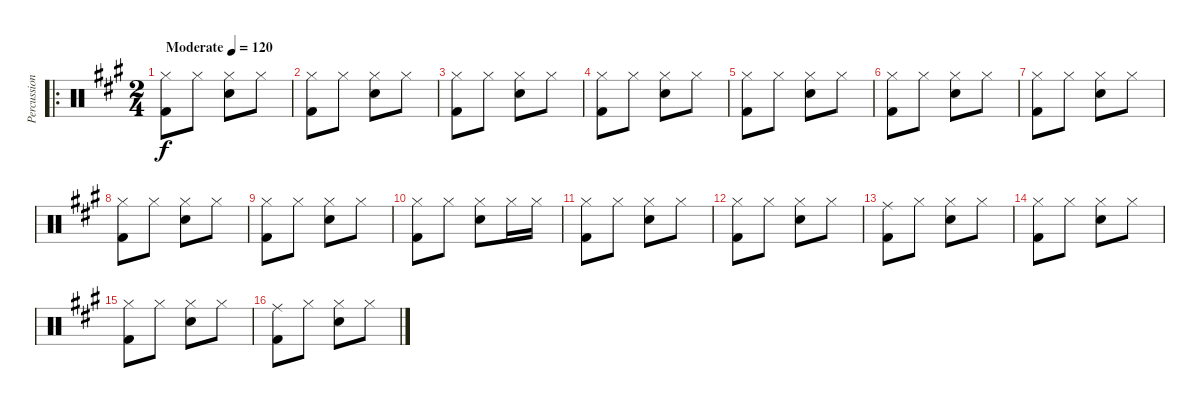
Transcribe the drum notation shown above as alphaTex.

\track ("Percussion" "Percussion") {instrument percussion}
\staff {score}
\articulation defaults
\ro
\ts (2 4)
\tempo (120 "Moderate")
\clef neutral
\ks a
("Hi-Hat (closed)" "Kick (hit) 2").8{dy f} "Hi-Hat (closed)".8 ("Hi-Hat (closed)" "Snare (hit) 2").8 "Hi-Hat (closed)".8 |
("Hi-Hat (closed)" "Kick (hit) 2").8 "Hi-Hat (closed)".8 ("Hi-Hat (closed)" "Snare (hit) 2").8 "Hi-Hat (closed)".8 |
("Hi-Hat (closed)" "Kick (hit) 2").8 "Hi-Hat (closed)".8 ("Hi-Hat (closed)" "Snare (hit) 2").8 "Hi-Hat (closed)".8 |
("Hi-Hat (closed)" "Kick (hit) 2").8 "Hi-Hat (closed)".8 ("Hi-Hat (closed)" "Snare (hit) 2").8 "Hi-Hat (closed)".8 |
("Hi-Hat (closed)" "Kick (hit) 2").8 "Hi-Hat (closed)".8 ("Hi-Hat (closed)" "Snare (hit) 2").8 "Hi-Hat (closed)".8 |
("Hi-Hat (closed)" "Kick (hit) 2").8 "Hi-Hat (closed)".8 ("Hi-Hat (closed)" "Snare (hit) 2").8 "Hi-Hat (closed)".8 |
("Hi-Hat (closed)" "Kick (hit) 2").8 "Hi-Hat (closed)".8 ("Hi-Hat (closed)" "Snare (hit) 2").8 "Hi-Hat (closed)".8 |
("Hi-Hat (closed)" "Kick (hit) 2").8 "Hi-Hat (closed)".8 ("Hi-Hat (closed)" "Snare (hit) 2").8 "Hi-Hat (closed)".8 |
("Hi-Hat (closed)" "Kick (hit) 2").8 "Hi-Hat (closed)".8 ("Hi-Hat (closed)" "Snare (hit) 2").8 "Hi-Hat (closed)".8 |
("Hi-Hat (closed)" "Kick (hit) 2").8 "Hi-Hat (closed)".8 ("Hi-Hat (closed)" "Snare (hit) 2").8 "Hi-Hat (closed)".16 "Hi-Hat (closed)".16 |
("Hi-Hat (closed)" "Kick (hit) 2").8 "Hi-Hat (closed)".8 ("Hi-Hat (closed)" "Snare (hit) 2").8 "Hi-Hat (closed)".8 |
("Hi-Hat (closed)" "Kick (hit) 2").8 "Hi-Hat (closed)".8 ("Hi-Hat (closed)" "Snare (hit) 2").8 "Hi-Hat (closed)".8 |
("Ride (middle)" "Kick (hit) 2").8 "Hi-Hat (closed)".8 ("Hi-Hat (closed)" "Snare (hit) 2").8 "Hi-Hat (closed)".8 |
("Hi-Hat (closed)" "Kick (hit) 2").8 "Hi-Hat (closed)".8 ("Hi-Hat (closed)" "Snare (hit) 2").8 "Hi-Hat (closed)".8 |
("Hi-Hat (closed)" "Kick (hit) 2").8 "Hi-Hat (closed)".8 ("Hi-Hat (closed)" "Snare (hit) 2").8 "Hi-Hat (closed)".8 |
("Ride (middle)" "Kick (hit) 2").8 "Hi-Hat (closed)".8 ("Hi-Hat (closed)" "Snare (hit) 2").8 "Hi-Hat (closed)".8
